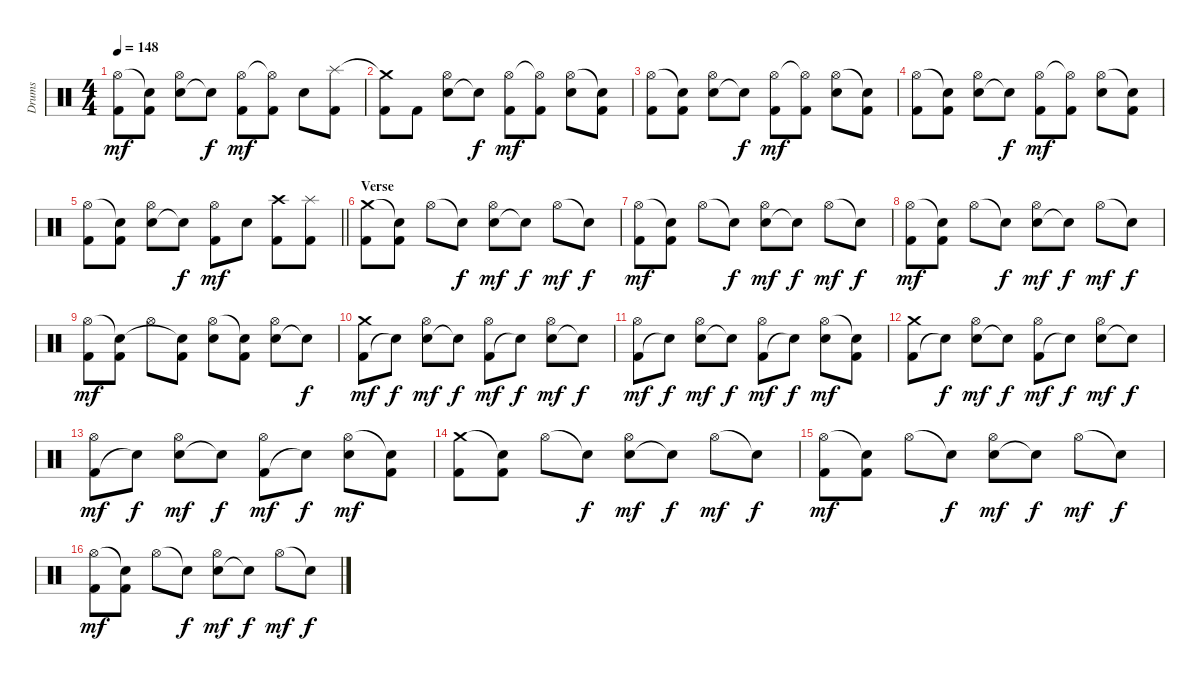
\track ("Drums" "Drums") {instrument percussion}
\staff {score}
\articulation defaults
\ts (4 4)
\tempo 148
\clef neutral
\ks c
("Kick (hit) 2" "Hi-Hat (open)").8{dy mf} ("Kick (hit) 2" "Snare (hit)"{t}).8 ("Snare (hit) 2" "Hi-Hat (open)").8 "Snare (hit)"{t}.8{dy f} ("Kick (hit) 2" "Hi-Hat (open)").8{dy mf} ("Kick (hit) 2" "Hi-Hat (open)"{t}).8 "Snare (hit) 2".8 ("Kick (hit) 2" "Splash (hit)").8 |
("Kick (hit) 2" "Crash medium (hit)"{t}).8 "Kick (hit) 2".8 ("Snare (hit) 2" "Hi-Hat (open)").8 "Snare (hit)"{t}.8{dy f} ("Kick (hit) 2" "Hi-Hat (open)").8{dy mf} ("Kick (hit) 2" "Hi-Hat (open)"{t}).8 ("Snare (hit) 2" "Hi-Hat (open)").8 ("Kick (hit) 2" "Snare (hit)"{t}).8 |
("Kick (hit) 2" "Hi-Hat (open)").8 ("Kick (hit) 2" "Snare (hit)"{t}).8 ("Snare (hit) 2" "Hi-Hat (open)").8 "Snare (hit)"{t}.8{dy f} ("Kick (hit) 2" "Hi-Hat (open)").8{dy mf} ("Kick (hit) 2" "Hi-Hat (open)"{t}).8 ("Snare (hit) 2" "Hi-Hat (open)").8 ("Kick (hit) 2" "Snare (hit)"{t}).8 |
("Kick (hit) 2" "Hi-Hat (open)").8 ("Kick (hit) 2" "Snare (hit)"{t}).8 ("Snare (hit) 2" "Hi-Hat (open)").8 "Snare (hit)"{t}.8{dy f} ("Kick (hit) 2" "Hi-Hat (open)").8{dy mf} ("Kick (hit) 2" "Hi-Hat (open)"{t}).8 ("Snare (hit) 2" "Hi-Hat (open)").8 ("Kick (hit) 2" "Snare (hit)"{t}).8 |
\barLineRight lightlight
("Kick (hit) 2" "Hi-Hat (open)").8 ("Kick (hit) 2" "Snare (hit)"{t}).8 ("Snare (hit) 2" "Hi-Hat (open)").8 "Snare (hit)"{t}.8{dy f} ("Kick (hit) 2" "Hi-Hat (open)").8{dy mf} "Snare (hit) 2".8 ("Kick (hit) 2" "Crash high (hit)").8 ("Kick (hit) 2" "Splash (hit)").8 |
\section ("" "Verse")
("Kick (hit) 2" "Crash medium (hit)").8 ("Kick (hit) 2" "Snare (hit)"{t}).8 "Hi-Hat (open)".8 "Snare (hit)"{t}.8{dy f} ("Snare (hit) 2" "Hi-Hat (open)").8{dy mf} "Snare (hit)"{t}.8{dy f} "Hi-Hat (open)".8{dy mf} "Snare (hit)"{t}.8{dy f} |
("Kick (hit) 2" "Hi-Hat (open)").8{dy mf} ("Kick (hit) 2" "Snare (hit)"{t}).8 "Hi-Hat (open)".8 "Snare (hit)"{t}.8{dy f} ("Snare (hit) 2" "Hi-Hat (open)").8{dy mf} "Snare (hit)"{t}.8{dy f} "Hi-Hat (open)".8{dy mf} "Snare (hit)"{t}.8{dy f} |
("Kick (hit) 2" "Hi-Hat (open)").8{dy mf} ("Kick (hit) 2" "Snare (hit)"{t}).8 "Hi-Hat (open)".8 "Snare (hit)"{t}.8{dy f} ("Snare (hit) 2" "Hi-Hat (open)").8{dy mf} "Snare (hit)"{t}.8{dy f} "Hi-Hat (open)".8{dy mf} "Snare (hit)"{t}.8{dy f} |
("Kick (hit) 2" "Hi-Hat (open)").8{dy mf} ("Kick (hit) 2" "Snare (hit)"{t}).8 "Hi-Hat (open)".8 ("Kick (hit) 2" "Snare (hit)"{t}).8 ("Snare (hit) 2" "Hi-Hat (open)").8 ("Kick (hit) 2" "Snare (hit)"{t}).8 ("Snare (hit) 2" "Hi-Hat (open)").8 "Snare (hit)"{t}.8{dy f} |
("Kick (hit) 2" "Crash medium (hit)").8{dy mf} "Snare (hit)"{t}.8{dy f} ("Snare (hit) 2" "Hi-Hat (open)").8{dy mf} "Snare (hit)"{t}.8{dy f} ("Kick (hit) 2" "Hi-Hat (open)").8{dy mf} "Snare (hit)"{t}.8{dy f} ("Snare (hit) 2" "Hi-Hat (open)").8{dy mf} "Snare (hit)"{t}.8{dy f} |
("Kick (hit) 2" "Hi-Hat (open)").8{dy mf} "Snare (hit)"{t}.8{dy f} ("Snare (hit) 2" "Hi-Hat (open)").8{dy mf} "Snare (hit)"{t}.8{dy f} ("Kick (hit) 2" "Hi-Hat (open)").8{dy mf} "Snare (hit)"{t}.8{dy f} ("Snare (hit) 2" "Hi-Hat (open)").8{dy mf} ("Kick (hit) 2" "Snare (hit)"{t}).8 |
("Kick (hit) 2" "Crash medium (hit)").8 "Snare (hit)"{t}.8{dy f} ("Snare (hit) 2" "Hi-Hat (open)").8{dy mf} "Snare (hit)"{t}.8{dy f} ("Kick (hit) 2" "Hi-Hat (open)").8{dy mf} "Snare (hit)"{t}.8{dy f} ("Snare (hit) 2" "Hi-Hat (open)").8{dy mf} "Snare (hit)"{t}.8{dy f} |
("Kick (hit) 2" "Hi-Hat (open)").8{dy mf} "Snare (hit)"{t}.8{dy f} ("Snare (hit) 2" "Hi-Hat (open)").8{dy mf} "Snare (hit)"{t}.8{dy f} ("Kick (hit) 2" "Hi-Hat (open)").8{dy mf} "Snare (hit)"{t}.8{dy f} ("Snare (hit) 2" "Hi-Hat (open)").8{dy mf} ("Kick (hit) 2" "Snare (hit)"{t}).8 |
("Kick (hit) 2" "Crash medium (hit)").8 ("Kick (hit) 2" "Snare (hit)"{t}).8 "Hi-Hat (open)".8 "Snare (hit)"{t}.8{dy f} ("Snare (hit) 2" "Hi-Hat (open)").8{dy mf} "Snare (hit)"{t}.8{dy f} "Hi-Hat (open)".8{dy mf} "Snare (hit)"{t}.8{dy f} |
("Kick (hit) 2" "Hi-Hat (open)").8{dy mf} ("Kick (hit) 2" "Snare (hit)"{t}).8 "Hi-Hat (open)".8 "Snare (hit)"{t}.8{dy f} ("Snare (hit) 2" "Hi-Hat (open)").8{dy mf} "Snare (hit)"{t}.8{dy f} "Hi-Hat (open)".8{dy mf} "Snare (hit)"{t}.8{dy f} |
("Kick (hit) 2" "Hi-Hat (open)").8{dy mf} ("Kick (hit) 2" "Snare (hit)"{t}).8 "Hi-Hat (open)".8 "Snare (hit)"{t}.8{dy f} ("Snare (hit) 2" "Hi-Hat (open)").8{dy mf} "Snare (hit)"{t}.8{dy f} "Hi-Hat (open)".8{dy mf} "Snare (hit)"{t}.8{dy f}
